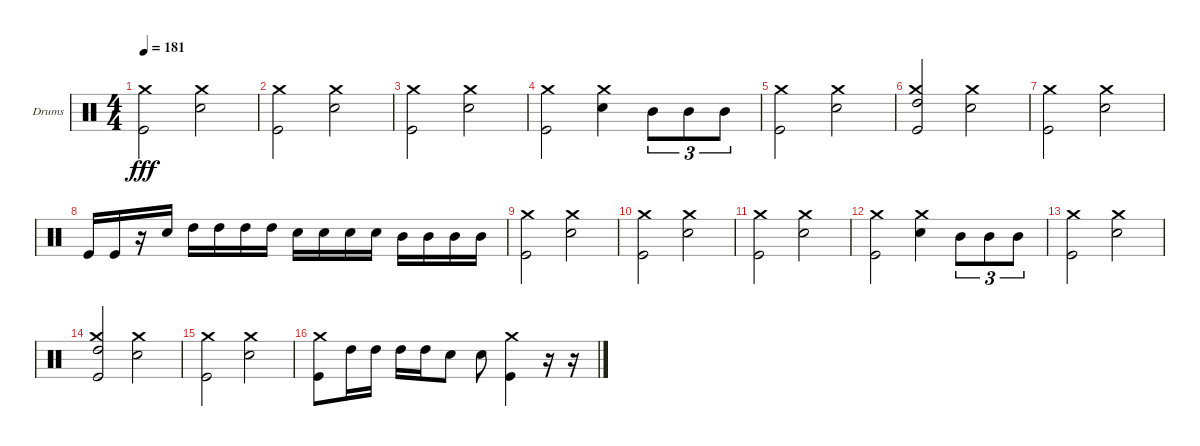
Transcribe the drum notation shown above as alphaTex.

\bracketExtendMode groupsimilarinstruments
\firstSystemTrackNameOrientation horizontal
\otherSystemsTrackNameOrientation horizontal
\track ("Drumkit" "Drums") {solo instrument percussion}
\staff {score}
\articulation defaults
\ts (4 4)
\tempo 181
\clef neutral
\scale
0.333333
\ks c
("Kick (hit)" "Crash medium (hit)").2{dy fff} ("Snare (hit) 2" "Crash medium (hit)").2 |
\scale
0.333333 ("Kick (hit)" "Crash medium (hit)").2 ("Snare (hit) 2" "Crash medium (hit)").2 |
\scale
0.333333 ("Kick (hit)" "Crash medium (hit)").2 ("Snare (hit) 2" "Crash medium (hit)").2 |
\scale
0.333333 ("Kick (hit)" "Crash medium (hit)").2 ("Snare (hit) 2" "Crash medium (hit)").4 "Mid Tom (hit)".8{tu (3 2)} "Mid Tom (hit)".8{tu (3 2)} "Mid Tom (hit)".8{tu (3 2)} |
\scale
0.333333 ("Kick (hit)" "Crash medium (hit)").2 ("Snare (hit) 2" "Crash medium (hit)").2 |
\scale
0.333333 ("Kick (hit)" "Crash medium (hit)" "High Tom (hit)").2 ("Snare (hit) 2" "Crash medium (hit)").2 |
\scale
0.333333 ("Kick (hit)" "Crash medium (hit)").2 ("Snare (hit) 2" "Crash medium (hit)").2 |
\scale
0.333333 "Kick (hit)".16 "Kick (hit)".16 r.16 "Snare (hit) 2".16 "High Tom (hit)".16 "High Tom (hit)".16 "High Tom (hit)".16 "High Tom (hit)".16 "Snare (hit) 2".16 "Snare (hit) 2".16 "Snare (hit) 2".16 "Snare (hit) 2".16 "Mid Tom (hit)".16 "Mid Tom (hit)".16 "Mid Tom (hit)".16 "Mid Tom (hit)".16 |
\scale
0.333333 ("Kick (hit)" "Crash medium (hit)").2 ("Snare (hit) 2" "Crash medium (hit)").2 |
\scale
0.333333 ("Kick (hit)" "Crash medium (hit)").2 ("Snare (hit) 2" "Crash medium (hit)").2 |
\scale
0.333333 ("Kick (hit)" "Crash medium (hit)").2 ("Snare (hit) 2" "Crash medium (hit)").2 |
\scale
0.333333 ("Kick (hit)" "Crash medium (hit)").2 ("Snare (hit) 2" "Crash medium (hit)").4 "Mid Tom (hit)".8{tu (3 2)} "Mid Tom (hit)".8{tu (3 2)} "Mid Tom (hit)".8{tu (3 2)} |
\scale
0.333333 ("Kick (hit)" "Crash medium (hit)").2 ("Snare (hit) 2" "Crash medium (hit)").2 |
\scale
0.333333 ("Kick (hit)" "Crash medium (hit)" "High Tom (hit)").2 ("Snare (hit) 2" "Crash medium (hit)").2 |
\scale
0.333333 ("Kick (hit)" "Crash medium (hit)").2 ("Snare (hit) 2" "Crash medium (hit)").2 |
\scale
0.333333 ("Kick (hit)" "Crash medium (hit)").8 "High Tom (hit)".16 "High Tom (hit)".16 "High Tom (hit)".16 "High Tom (hit)".16 "Snare (hit) 2".8 "Snare (hit) 2".8 ("Kick (hit)" "Crash medium (hit)").4 r.16 r.16
